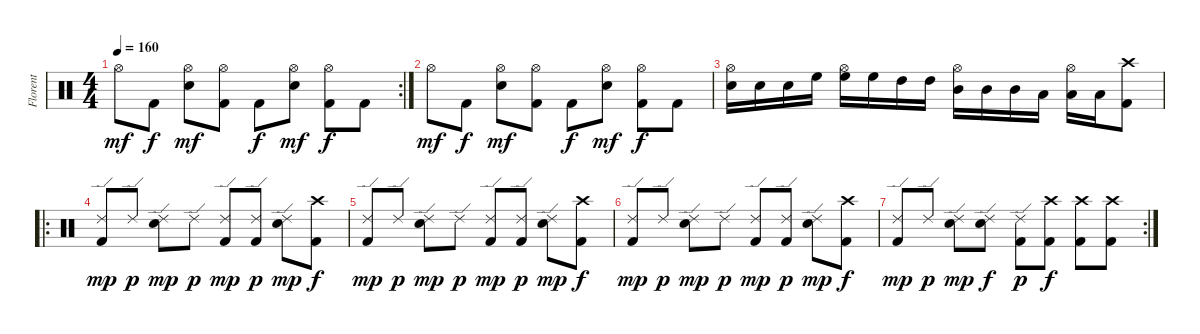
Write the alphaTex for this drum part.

\track ("Florent" "Florent") {instrument percussion}
\staff {score}
\articulation defaults
\rc 2
\ts (4 4)
\tempo 160
\clef neutral
\ks c "Hi-Hat (open)".8{dy mf} "Kick (hit) 2".8{dy f}
("Hi-Hat (open)" "Electric Snare (hit)").8{dy mf} ("Hi-Hat (open)" "Kick (hit) 2").8 "Kick (hit) 2".8{dy f} ("Hi-Hat (open)" "Electric Snare (hit)").8{dy mf} ("Hi-Hat (open)" "Kick (hit) 2").8{dy f} "Kick (hit) 2".8 |
"Hi-Hat (open)".8{dy mf} "Kick (hit) 2".8{dy f} ("Hi-Hat (open)" "Electric Snare (hit)").8{dy mf} ("Hi-Hat (open)" "Kick (hit) 2").8 "Kick (hit) 2".8{dy f} ("Hi-Hat (open)" "Electric Snare (hit)").8{dy mf} ("Hi-Hat (open)" "Kick (hit) 2").8{dy f} "Kick (hit) 2".8 |
("Snare (hit) 2" "Hi-Hat (open)").16 "Snare (hit) 2".16 "Snare (hit) 2".16 "High Floor Tom (hit)".16 ("Hi-Hat (open)" "High Floor Tom (hit)").16 "High Floor Tom (hit)".16 "High Tom (hit)".16 "High Tom (hit)".16 ("Hi-Hat (open)" "Mid Tom (hit)").16 "Mid Tom (hit)".16 "Mid Tom (hit)".16 "Low Tom (hit)".16 ("Low Tom (hit)" "Hi-Hat (open)").16 "Low Tom (hit)".16 ("Kick (hit) 2" "Crash high (hit)").8 |
\ro
("Ride (edge) 2" "Kick (hit) 2").8{dy mp} "Ride (edge) 2".8{dy p} ("Ride (edge) 2" "Electric Snare (hit)").8{dy mp} "Ride (edge) 2".8{dy p} ("Ride (edge) 2" "Kick (hit) 2").8{dy mp} ("Ride (edge) 2" "Kick (hit) 2").8{dy p} ("Ride (edge) 2" "Electric Snare (hit)").8{dy mp} ("Crash high (hit)" "Kick (hit) 2").8{dy f} |
("Ride (edge) 2" "Kick (hit) 2").8{dy mp} "Ride (edge) 2".8{dy p} ("Ride (edge) 2" "Electric Snare (hit)").8{dy mp} "Ride (edge) 2".8{dy p} ("Ride (edge) 2" "Kick (hit) 2").8{dy mp} ("Ride (edge) 2" "Kick (hit) 2").8{dy p} ("Ride (edge) 2" "Electric Snare (hit)").8{dy mp} ("Crash high (hit)" "Kick (hit) 2").8{dy f} |
("Ride (edge) 2" "Kick (hit) 2").8{dy mp} "Ride (edge) 2".8{dy p} ("Ride (edge) 2" "Electric Snare (hit)").8{dy mp} "Ride (edge) 2".8{dy p} ("Ride (edge) 2" "Kick (hit) 2").8{dy mp} ("Ride (edge) 2" "Kick (hit) 2").8{dy p} ("Ride (edge) 2" "Electric Snare (hit)").8{dy mp} ("Crash high (hit)" "Kick (hit) 2").8{dy f} |
\rc 2
("Ride (edge) 2" "Kick (hit) 2").8{dy mp} "Ride (edge) 2".8{dy p} ("Ride (edge) 2" "Electric Snare (hit)").8{dy mp} ("Ride (edge) 2" "Electric Snare (hit)").8{dy f} ("Ride (edge) 2" "Kick (hit) 2").8{dy p} ("Crash high (hit)" "Kick (hit) 2").8{dy f} ("Crash high (hit)" "Kick (hit) 2").8 ("Crash high (hit)" "Kick (hit) 2").8
